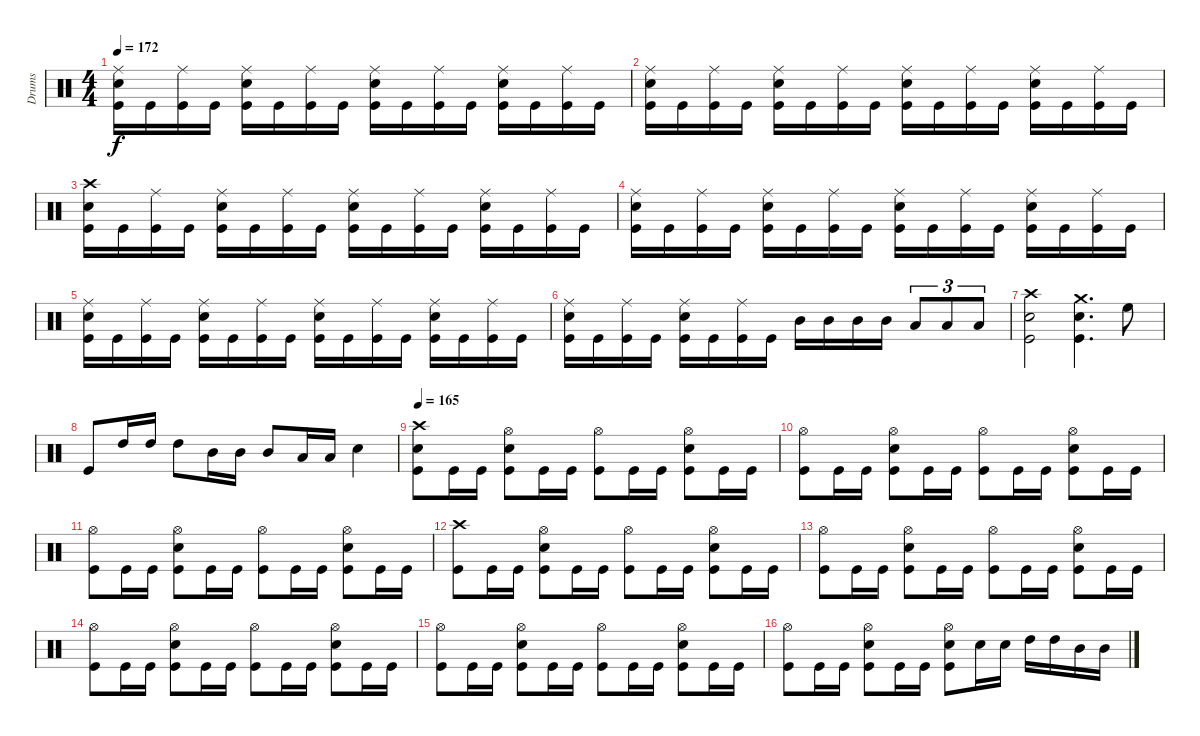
\track ("Drums" "Drums") {instrument percussion}
\staff {score}
\articulation defaults
\ts (4 4)
\tempo 172
\clef neutral
\ks c
("Kick (hit)" "Snare (hit) 2" "Ride (middle)").16{dy f} "Kick (hit)".16 ("Kick (hit)" "Ride (middle)").16 "Kick (hit)".16 ("Kick (hit)" "Snare (hit) 2" "Ride (middle)").16 "Kick (hit)".16 ("Kick (hit)" "Ride (middle)").16 "Kick (hit)".16 ("Kick (hit)" "Snare (hit) 2" "Ride (middle)").16 "Kick (hit)".16 ("Kick (hit)" "Ride (middle)").16 "Kick (hit)".16 ("Kick (hit)" "Snare (hit) 2" "Ride (middle)").16 "Kick (hit)".16 ("Kick (hit)" "Ride (middle)").16 "Kick (hit)".16 |
("Kick (hit)" "Snare (hit) 2" "Ride (middle)").16 "Kick (hit)".16 ("Kick (hit)" "Ride (middle)").16 "Kick (hit)".16 ("Kick (hit)" "Snare (hit) 2" "Ride (middle)").16 "Kick (hit)".16 ("Kick (hit)" "Ride (middle)").16 "Kick (hit)".16 ("Kick (hit)" "Snare (hit) 2" "Ride (middle)").16 "Kick (hit)".16 ("Kick (hit)" "Ride (middle)").16 "Kick (hit)".16 ("Kick (hit)" "Snare (hit) 2" "Ride (middle)").16 "Kick (hit)".16 ("Kick (hit)" "Ride (middle)").16 "Kick (hit)".16 |
("Kick (hit)" "Snare (hit) 2" "Crash high (hit)").16 "Kick (hit)".16 ("Kick (hit)" "Ride (middle)").16 "Kick (hit)".16 ("Kick (hit)" "Snare (hit) 2" "Ride (middle)").16 "Kick (hit)".16 ("Kick (hit)" "Ride (middle)").16 "Kick (hit)".16 ("Kick (hit)" "Snare (hit) 2" "Ride (middle)").16 "Kick (hit)".16 ("Kick (hit)" "Ride (middle)").16 "Kick (hit)".16 ("Kick (hit)" "Snare (hit) 2" "Ride (middle)").16 "Kick (hit)".16 ("Kick (hit)" "Ride (middle)").16 "Kick (hit)".16 |
("Kick (hit)" "Snare (hit) 2" "Ride (middle)").16 "Kick (hit)".16 ("Kick (hit)" "Ride (middle)").16 "Kick (hit)".16 ("Kick (hit)" "Snare (hit) 2" "Ride (middle)").16 "Kick (hit)".16 ("Kick (hit)" "Ride (middle)").16 "Kick (hit)".16 ("Kick (hit)" "Snare (hit) 2" "Ride (middle)").16 "Kick (hit)".16 ("Kick (hit)" "Ride (middle)").16 "Kick (hit)".16 ("Kick (hit)" "Snare (hit) 2" "Ride (middle)").16 "Kick (hit)".16 ("Kick (hit)" "Ride (middle)").16 "Kick (hit)".16 |
("Kick (hit)" "Snare (hit) 2" "Ride (middle)").16 "Kick (hit)".16 ("Kick (hit)" "Ride (middle)").16 "Kick (hit)".16 ("Kick (hit)" "Snare (hit) 2" "Ride (middle)").16 "Kick (hit)".16 ("Kick (hit)" "Ride (middle)").16 "Kick (hit)".16 ("Kick (hit)" "Snare (hit) 2" "Ride (middle)").16 "Kick (hit)".16 ("Kick (hit)" "Ride (middle)").16 "Kick (hit)".16 ("Kick (hit)" "Snare (hit) 2" "Ride (middle)").16 "Kick (hit)".16 ("Kick (hit)" "Ride (middle)").16 "Kick (hit)".16 |
("Kick (hit)" "Snare (hit) 2" "Ride (middle)").16 "Kick (hit)".16 ("Kick (hit)" "Ride (middle)").16 "Kick (hit)".16 ("Kick (hit)" "Snare (hit) 2" "Ride (middle)").16 "Kick (hit)".16 ("Kick (hit)" "Ride (middle)").16 "Kick (hit)".16 "Mid Tom (hit)".16 "Mid Tom (hit)".16 "Mid Tom (hit)".16 "Mid Tom (hit)".16 "Low Tom (hit)".8{tu (3 2)} "Low Tom (hit)".8{tu (3 2)} "Low Tom (hit)".8{tu (3 2)} |
("Kick (hit)" "Snare (hit) 2" "Crash high (hit)").2 ("Kick (hit)" "Snare (hit) 2" "Crash medium (hit)").4{d} "High Floor Tom (hit)".8 |
"Kick (hit)".8 "High Tom (hit)".16 "High Tom (hit)".16 "High Tom (hit)".8 "Mid Tom (hit)".16 "Mid Tom (hit)".16 "Mid Tom (hit)".8 "Low Tom (hit)".16 "Low Tom (hit)".16 "Snare (hit) 2".4 |
\tempo 165
("Kick (hit)" "Snare (hit) 2" "Crash high (hit)").8 "Kick (hit)".16 "Kick (hit)".16 ("Kick (hit)" "Snare (hit) 2" "Hi-Hat (open)").8 "Kick (hit)".16 "Kick (hit)".16 ("Kick (hit)" "Hi-Hat (open)").8 "Kick (hit)".16 "Kick (hit)".16 ("Snare (hit) 2" "Kick (hit)" "Hi-Hat (open)").8 "Kick (hit)".16 "Kick (hit)".16 |
("Kick (hit)" "Hi-Hat (open)").8 "Kick (hit)".16 "Kick (hit)".16 ("Kick (hit)" "Snare (hit) 2" "Hi-Hat (open)").8 "Kick (hit)".16 "Kick (hit)".16 ("Kick (hit)" "Hi-Hat (open)").8 "Kick (hit)".16 "Kick (hit)".16 ("Snare (hit) 2" "Kick (hit)" "Hi-Hat (open)").8 "Kick (hit)".16 "Kick (hit)".16 |
("Kick (hit)" "Hi-Hat (open)").8 "Kick (hit)".16 "Kick (hit)".16 ("Kick (hit)" "Snare (hit) 2" "Hi-Hat (open)").8 "Kick (hit)".16 "Kick (hit)".16 ("Kick (hit)" "Hi-Hat (open)").8 "Kick (hit)".16 "Kick (hit)".16 ("Snare (hit) 2" "Kick (hit)" "Hi-Hat (open)").8 "Kick (hit)".16 "Kick (hit)".16 |
("Kick (hit)" "Crash high (hit)").8 "Kick (hit)".16 "Kick (hit)".16 ("Kick (hit)" "Snare (hit) 2" "Hi-Hat (open)").8 "Kick (hit)".16 "Kick (hit)".16 ("Kick (hit)" "Hi-Hat (open)").8 "Kick (hit)".16 "Kick (hit)".16 ("Snare (hit) 2" "Kick (hit)" "Hi-Hat (open)").8 "Kick (hit)".16 "Kick (hit)".16 |
("Kick (hit)" "Hi-Hat (open)").8 "Kick (hit)".16 "Kick (hit)".16 ("Kick (hit)" "Snare (hit) 2" "Hi-Hat (open)").8 "Kick (hit)".16 "Kick (hit)".16 ("Kick (hit)" "Hi-Hat (open)").8 "Kick (hit)".16 "Kick (hit)".16 ("Snare (hit) 2" "Kick (hit)" "Hi-Hat (open)").8 "Kick (hit)".16 "Kick (hit)".16 |
("Kick (hit)" "Hi-Hat (open)").8 "Kick (hit)".16 "Kick (hit)".16 ("Kick (hit)" "Snare (hit) 2" "Hi-Hat (open)").8 "Kick (hit)".16 "Kick (hit)".16 ("Kick (hit)" "Hi-Hat (open)").8 "Kick (hit)".16 "Kick (hit)".16 ("Snare (hit) 2" "Kick (hit)" "Hi-Hat (open)").8 "Kick (hit)".16 "Kick (hit)".16 |
("Kick (hit)" "Hi-Hat (open)").8 "Kick (hit)".16 "Kick (hit)".16 ("Kick (hit)" "Snare (hit) 2" "Hi-Hat (open)").8 "Kick (hit)".16 "Kick (hit)".16 ("Kick (hit)" "Hi-Hat (open)").8 "Kick (hit)".16 "Kick (hit)".16 ("Snare (hit) 2" "Kick (hit)" "Hi-Hat (open)").8 "Kick (hit)".16 "Kick (hit)".16 |
("Kick (hit)" "Hi-Hat (open)").8 "Kick (hit)".16 "Kick (hit)".16 ("Kick (hit)" "Snare (hit) 2" "Hi-Hat (open)").8 "Kick (hit)".16 "Kick (hit)".16 ("Snare (hit) 2" "Kick (hit)" "Hi-Hat (open)").8 "Snare (hit) 2".16 "Snare (hit) 2".16 "High Tom (hit)".16 "High Tom (hit)".16 "Mid Tom (hit)".16 "Mid Tom (hit)".16
